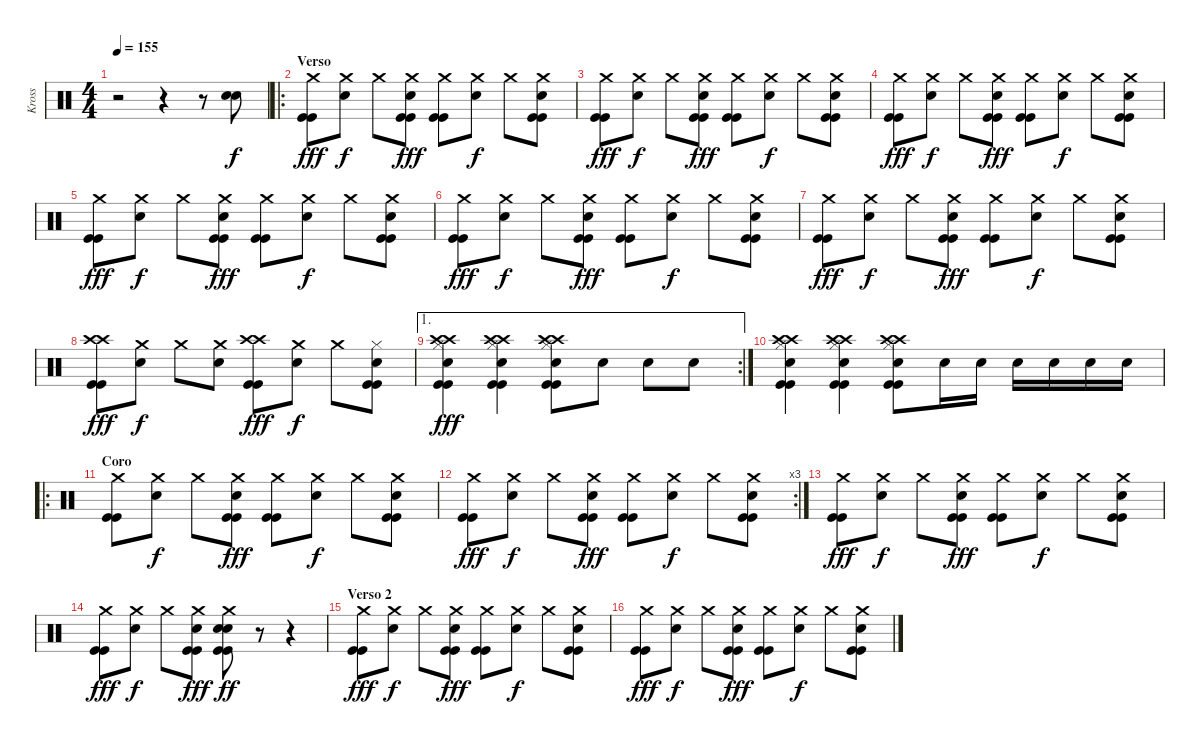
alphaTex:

\track ("Kross" "Kross") {instrument percussion}
\staff {score}
\articulation defaults
\ts (4 4)
\tempo 155
\clef neutral
\ks c
r.2{dy f} r.4 r.8 ("Electric Snare (hit)" "Electric Snare (hit)").8 |
\ro
\section ("" "Verso")
("Kick (hit)" "Kick (hit)" "Crash medium (hit)").8{dy fff} ("Crash medium (hit)" "Electric Snare (hit)").8{dy f} "Crash medium (hit)".8 ("Kick (hit)" "Kick (hit)" "Crash medium (hit)" "Electric Snare (hit)").8{dy fff} ("Kick (hit)" "Kick (hit)" "Crash medium (hit)").8 ("Crash medium (hit)" "Electric Snare (hit)").8{dy f} "Crash medium (hit)".8 ("Kick (hit)" "Kick (hit)" "Crash medium (hit)" "Electric Snare (hit)").8 |
("Kick (hit)" "Kick (hit)" "Crash medium (hit)").8{dy fff} ("Crash medium (hit)" "Electric Snare (hit)").8{dy f} "Crash medium (hit)".8 ("Kick (hit)" "Kick (hit)" "Crash medium (hit)" "Electric Snare (hit)").8{dy fff} ("Kick (hit)" "Kick (hit)" "Crash medium (hit)").8 ("Crash medium (hit)" "Electric Snare (hit)").8{dy f} "Crash medium (hit)".8 ("Kick (hit)" "Kick (hit)" "Crash medium (hit)" "Electric Snare (hit)").8 |
("Kick (hit)" "Kick (hit)" "Crash medium (hit)").8{dy fff} ("Crash medium (hit)" "Electric Snare (hit)").8{dy f} "Crash medium (hit)".8 ("Kick (hit)" "Kick (hit)" "Crash medium (hit)" "Electric Snare (hit)").8{dy fff} ("Kick (hit)" "Kick (hit)" "Crash medium (hit)").8 ("Crash medium (hit)" "Electric Snare (hit)").8{dy f} "Crash medium (hit)".8 ("Kick (hit)" "Kick (hit)" "Crash medium (hit)" "Electric Snare (hit)").8 |
("Kick (hit)" "Kick (hit)" "Crash medium (hit)").8{dy fff} ("Crash medium (hit)" "Electric Snare (hit)").8{dy f} "Crash medium (hit)".8 ("Kick (hit)" "Kick (hit)" "Crash medium (hit)" "Electric Snare (hit)").8{dy fff} ("Kick (hit)" "Kick (hit)" "Crash medium (hit)").8 ("Crash medium (hit)" "Electric Snare (hit)").8{dy f} "Crash medium (hit)".8 ("Kick (hit)" "Kick (hit)" "Crash medium (hit)" "Electric Snare (hit)").8 |
("Kick (hit)" "Kick (hit)" "Crash medium (hit)").8{dy fff} ("Crash medium (hit)" "Electric Snare (hit)").8{dy f} "Crash medium (hit)".8 ("Kick (hit)" "Kick (hit)" "Crash medium (hit)" "Electric Snare (hit)").8{dy fff} ("Kick (hit)" "Kick (hit)" "Crash medium (hit)").8 ("Crash medium (hit)" "Electric Snare (hit)").8{dy f} "Crash medium (hit)".8 ("Kick (hit)" "Kick (hit)" "Crash medium (hit)" "Electric Snare (hit)").8 |
("Kick (hit)" "Kick (hit)" "Crash medium (hit)").8{dy fff} ("Crash medium (hit)" "Electric Snare (hit)").8{dy f} "Crash medium (hit)".8 ("Kick (hit)" "Kick (hit)" "Crash medium (hit)" "Electric Snare (hit)").8{dy fff} ("Kick (hit)" "Kick (hit)" "Crash medium (hit)").8 ("Crash medium (hit)" "Electric Snare (hit)").8{dy f} "Crash medium (hit)".8 ("Kick (hit)" "Kick (hit)" "Crash medium (hit)" "Electric Snare (hit)").8 |
("Kick (hit)" "Kick (hit)" "Crash high (hit)" "Crash high (hit)").8{dy fff} ("Crash medium (hit)" "Electric Snare (hit)").8{dy f} "Crash medium (hit)".8 ("Crash medium (hit)" "Electric Snare (hit)").8 ("Kick (hit)" "Kick (hit)" "Crash high (hit)" "Crash high (hit)").8{dy fff} ("Crash medium (hit)" "Electric Snare (hit)").8{dy f} "Crash medium (hit)".8 ("Kick (hit)" "Kick (hit)" "Hi-Hat (closed)" "Electric Snare (hit)").8 |
\ae 1
\rc 2
("Kick (hit)" "Kick (hit)" "Crash high (hit)" "Crash high (hit)" "Hi-Hat (closed)" "Electric Snare (hit)").4{dy fff} ("Kick (hit)" "Kick (hit)" "Crash high (hit)" "Crash high (hit)" "Hi-Hat (closed)" "Electric Snare (hit)").4 ("Kick (hit)" "Kick (hit)" "Crash high (hit)" "Crash high (hit)" "Hi-Hat (closed)" "Electric Snare (hit)").8 "Electric Snare (hit)".8 "Electric Snare (hit)".8 "Electric Snare (hit)".8 |
("Kick (hit)" "Kick (hit)" "Crash high (hit)" "Crash high (hit)" "Hi-Hat (closed)" "Electric Snare (hit)").4 ("Kick (hit)" "Kick (hit)" "Crash high (hit)" "Crash high (hit)" "Hi-Hat (closed)" "Electric Snare (hit)").4 ("Kick (hit)" "Kick (hit)" "Crash high (hit)" "Crash high (hit)" "Hi-Hat (closed)" "Electric Snare (hit)").8 "Electric Snare (hit)".16 "Electric Snare (hit)".16 "Electric Snare (hit)".16 "Electric Snare (hit)".16 "Electric Snare (hit)".16 "Electric Snare (hit)".16 |
\ro
\section ("" "Coro")
("Kick (hit)" "Kick (hit)" "Crash medium (hit)").8 ("Crash medium (hit)" "Electric Snare (hit)").8{dy f} "Crash medium (hit)".8 ("Kick (hit)" "Kick (hit)" "Crash medium (hit)" "Electric Snare (hit)").8{dy fff} ("Kick (hit)" "Kick (hit)" "Crash medium (hit)").8 ("Crash medium (hit)" "Electric Snare (hit)").8{dy f} "Crash medium (hit)".8 ("Kick (hit)" "Kick (hit)" "Crash medium (hit)" "Electric Snare (hit)").8 |
\rc 3
("Kick (hit)" "Kick (hit)" "Crash medium (hit)").8{dy fff} ("Crash medium (hit)" "Electric Snare (hit)").8{dy f} "Crash medium (hit)".8 ("Kick (hit)" "Kick (hit)" "Crash medium (hit)" "Electric Snare (hit)").8{dy fff} ("Kick (hit)" "Kick (hit)" "Crash medium (hit)").8 ("Crash medium (hit)" "Electric Snare (hit)").8{dy f} "Crash medium (hit)".8 ("Kick (hit)" "Kick (hit)" "Crash medium (hit)" "Electric Snare (hit)").8 |
("Kick (hit)" "Kick (hit)" "Crash medium (hit)").8{dy fff} ("Crash medium (hit)" "Electric Snare (hit)").8{dy f} "Crash medium (hit)".8 ("Kick (hit)" "Kick (hit)" "Crash medium (hit)" "Electric Snare (hit)").8{dy fff} ("Kick (hit)" "Kick (hit)" "Crash medium (hit)").8 ("Crash medium (hit)" "Electric Snare (hit)").8{dy f} "Crash medium (hit)".8 ("Kick (hit)" "Kick (hit)" "Crash medium (hit)" "Electric Snare (hit)").8 |
("Kick (hit)" "Kick (hit)" "Crash medium (hit)").8{dy fff} ("Crash medium (hit)" "Electric Snare (hit)").8{dy f} "Crash medium (hit)".8 ("Kick (hit)" "Kick (hit)" "Crash medium (hit)" "Electric Snare (hit)").8{dy fff} ("Kick (hit)" "Kick (hit)" "Crash medium (hit)" "Electric Snare (hit)" "Electric Snare (hit)").8{dy ff} r.8 r.4 |
\section ("" "Verso 2")
("Kick (hit)" "Kick (hit)" "Crash medium (hit)").8{dy fff} ("Crash medium (hit)" "Electric Snare (hit)").8{dy f} "Crash medium (hit)".8 ("Kick (hit)" "Kick (hit)" "Crash medium (hit)" "Electric Snare (hit)").8{dy fff} ("Kick (hit)" "Kick (hit)" "Crash medium (hit)").8 ("Crash medium (hit)" "Electric Snare (hit)").8{dy f} "Crash medium (hit)".8 ("Kick (hit)" "Kick (hit)" "Crash medium (hit)" "Electric Snare (hit)").8 |
("Kick (hit)" "Kick (hit)" "Crash medium (hit)").8{dy fff} ("Crash medium (hit)" "Electric Snare (hit)").8{dy f} "Crash medium (hit)".8 ("Kick (hit)" "Kick (hit)" "Crash medium (hit)" "Electric Snare (hit)").8{dy fff} ("Kick (hit)" "Kick (hit)" "Crash medium (hit)").8 ("Crash medium (hit)" "Electric Snare (hit)").8{dy f} "Crash medium (hit)".8 ("Kick (hit)" "Kick (hit)" "Crash medium (hit)" "Electric Snare (hit)").8
